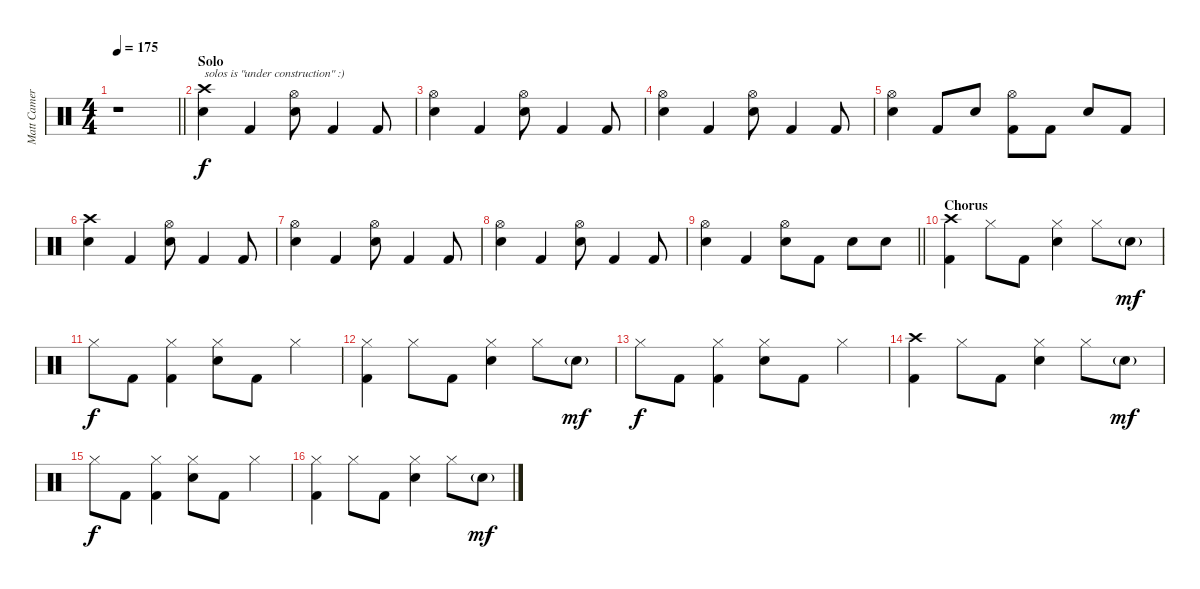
\track ("Matt Cameron Drum" "Matt Camer") {instrument percussion}
\staff {score}
\articulation defaults
\ts (4 4)
\tempo 175
\clef neutral
\barLineRight lightlight
\ks c
r.1{dy mp} |
\section ("" "Solo")
("Crash high (hit)" "Electric Snare (hit)").4{txt "solos is \"under construction\" :)" dy f} "Kick (hit) 2".4 ("Hi-Hat (open)" "Electric Snare (hit)").8 "Kick (hit) 2".4 "Kick (hit) 2".8 |
("Hi-Hat (open)" "Electric Snare (hit)").4 "Kick (hit) 2".4 ("Hi-Hat (open)" "Electric Snare (hit)").8 "Kick (hit) 2".4 "Kick (hit) 2".8 |
("Hi-Hat (open)" "Electric Snare (hit)").4 "Kick (hit) 2".4 ("Hi-Hat (open)" "Electric Snare (hit)").8 "Kick (hit) 2".4 "Kick (hit) 2".8 |
("Hi-Hat (open)" "Electric Snare (hit)").4 "Kick (hit) 2".8 "Electric Snare (hit)".8 ("Hi-Hat (open)" "Kick (hit) 2").8 "Kick (hit) 2".8 "Electric Snare (hit)".8 "Kick (hit) 2".8 |
("Crash high (hit)" "Electric Snare (hit)").4 "Kick (hit) 2".4 ("Hi-Hat (open)" "Electric Snare (hit)").8 "Kick (hit) 2".4 "Kick (hit) 2".8 |
("Hi-Hat (open)" "Electric Snare (hit)").4 "Kick (hit) 2".4 ("Hi-Hat (open)" "Electric Snare (hit)").8 "Kick (hit) 2".4 "Kick (hit) 2".8 |
("Hi-Hat (open)" "Electric Snare (hit)").4 "Kick (hit) 2".4 ("Hi-Hat (open)" "Electric Snare (hit)").8 "Kick (hit) 2".4 "Kick (hit) 2".8 |
\barLineRight lightlight
("Hi-Hat (open)" "Electric Snare (hit)").4 "Kick (hit) 2".4 ("Hi-Hat (open)" "Electric Snare (hit)").8 "Kick (hit) 2".8 "Electric Snare (hit)".8 "Electric Snare (hit)".8 |
\section ("" "Chorus")
("Crash high (hit)" "Kick (hit) 2").4 "Hi-Hat (closed)".8 "Kick (hit) 2".8 ("Hi-Hat (closed)" "Electric Snare (hit)").4 "Hi-Hat (closed)".8 "Electric Snare (hit)"{g}.8{dy mf} |
"Hi-Hat (closed)".8{dy f} "Kick (hit) 2".8 ("Hi-Hat (closed)" "Kick (hit) 2").4 ("Hi-Hat (closed)" "Electric Snare (hit)").8 "Kick (hit) 2".8 "Hi-Hat (closed)".4 |
("Hi-Hat (closed)" "Kick (hit) 2").4 "Hi-Hat (closed)".8 "Kick (hit) 2".8 ("Hi-Hat (closed)" "Electric Snare (hit)").4 "Hi-Hat (closed)".8 "Electric Snare (hit)"{g}.8{dy mf} |
"Hi-Hat (closed)".8{dy f} "Kick (hit) 2".8 ("Hi-Hat (closed)" "Kick (hit) 2").4 ("Hi-Hat (closed)" "Electric Snare (hit)").8 "Kick (hit) 2".8 "Hi-Hat (closed)".4 |
("Crash high (hit)" "Kick (hit) 2").4 "Hi-Hat (closed)".8 "Kick (hit) 2".8 ("Hi-Hat (closed)" "Electric Snare (hit)").4 "Hi-Hat (closed)".8 "Electric Snare (hit)"{g}.8{dy mf} |
"Hi-Hat (closed)".8{dy f} "Kick (hit) 2".8 ("Hi-Hat (closed)" "Kick (hit) 2").4 ("Hi-Hat (closed)" "Electric Snare (hit)").8 "Kick (hit) 2".8 "Hi-Hat (closed)".4 |
("Hi-Hat (closed)" "Kick (hit) 2").4 "Hi-Hat (closed)".8 "Kick (hit) 2".8 ("Hi-Hat (closed)" "Electric Snare (hit)").4 "Hi-Hat (closed)".8 "Electric Snare (hit)"{g}.8{dy mf}
